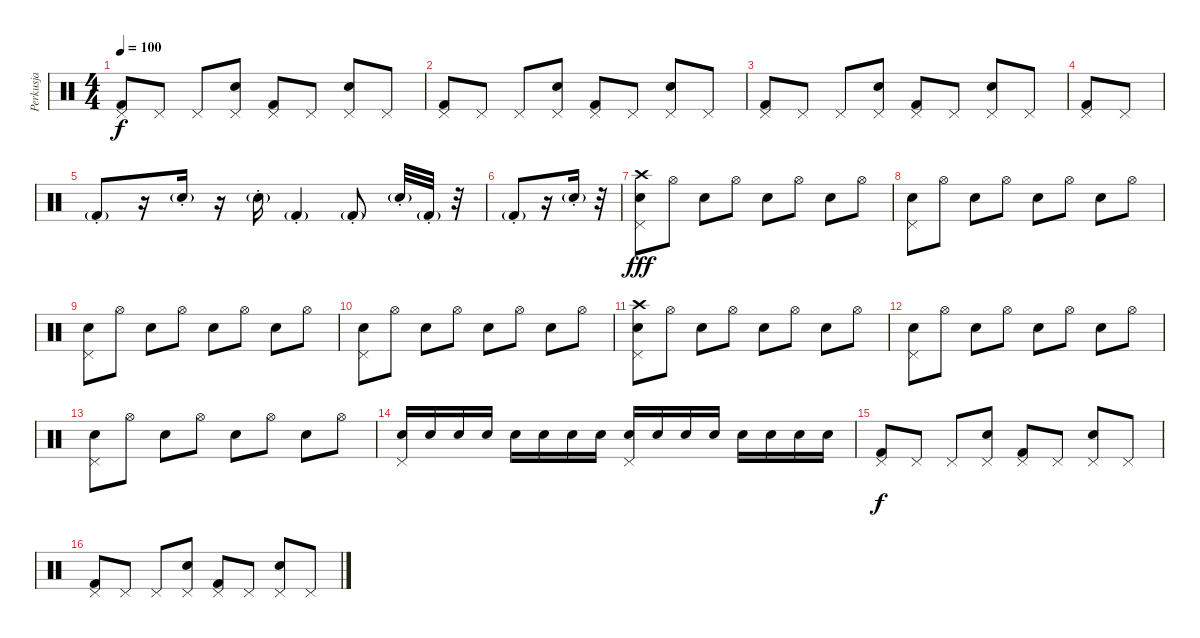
\track ("Perkusja" "Perkusja") {instrument percussion}
\staff {score}
\articulation defaults
\ts (4 4)
\tempo 100
\clef neutral
\ks c
("Pedal Hi-Hat (hit)" "Kick (hit) 2").8{dy f} "Pedal Hi-Hat (hit)".8 "Pedal Hi-Hat (hit)".8 ("Pedal Hi-Hat (hit)" "Snare (hit) 2").8 ("Pedal Hi-Hat (hit)" "Kick (hit) 2").8 "Pedal Hi-Hat (hit)".8 ("Pedal Hi-Hat (hit)" "Snare (hit) 2").8 "Pedal Hi-Hat (hit)".8 |
("Pedal Hi-Hat (hit)" "Kick (hit) 2").8 "Pedal Hi-Hat (hit)".8 "Pedal Hi-Hat (hit)".8 ("Pedal Hi-Hat (hit)" "Snare (hit) 2").8 ("Pedal Hi-Hat (hit)" "Kick (hit) 2").8 "Pedal Hi-Hat (hit)".8 ("Pedal Hi-Hat (hit)" "Snare (hit) 2").8 "Pedal Hi-Hat (hit)".8 |
("Pedal Hi-Hat (hit)" "Kick (hit) 2").8 "Pedal Hi-Hat (hit)".8 "Pedal Hi-Hat (hit)".8 ("Pedal Hi-Hat (hit)" "Snare (hit) 2").8 ("Pedal Hi-Hat (hit)" "Kick (hit) 2").8 "Pedal Hi-Hat (hit)".8 ("Pedal Hi-Hat (hit)" "Snare (hit) 2").8 "Pedal Hi-Hat (hit)".8 |
("Pedal Hi-Hat (hit)" "Kick (hit) 2").8 "Pedal Hi-Hat (hit)".8 |
"Kick (hit) 2"{g st}.8 r.16 "Snare (hit) 2"{g st}.16 r.16 "Snare (hit) 2"{g st}.16 "Kick (hit) 2"{g st}.4 "Kick (hit) 2"{g st}.8 "Snare (hit) 2"{g st}.32 "Kick (hit) 2"{g st}.32 r.32 |
"Kick (hit) 2"{g st}.8 r.16 "Snare (hit) 2"{g st}.16 r.32 |
("Electric Snare (hit)" "Pedal Hi-Hat (hit)" "Crash high (hit)").8{dy fff} "Hi-Hat (open)".8 "Electric Snare (hit)".8 "Hi-Hat (open)".8 "Electric Snare (hit)".8 "Hi-Hat (open)".8 "Electric Snare (hit)".8 "Hi-Hat (open)".8 |
("Electric Snare (hit)" "Pedal Hi-Hat (hit)").8 "Hi-Hat (open)".8 "Electric Snare (hit)".8 "Hi-Hat (open)".8 "Electric Snare (hit)".8 "Hi-Hat (open)".8 "Electric Snare (hit)".8 "Hi-Hat (open)".8 |
("Electric Snare (hit)" "Pedal Hi-Hat (hit)").8 "Hi-Hat (open)".8 "Electric Snare (hit)".8 "Hi-Hat (open)".8 "Electric Snare (hit)".8 "Hi-Hat (open)".8 "Electric Snare (hit)".8 "Hi-Hat (open)".8 |
("Electric Snare (hit)" "Pedal Hi-Hat (hit)").8 "Hi-Hat (open)".8 "Electric Snare (hit)".8 "Hi-Hat (open)".8 "Electric Snare (hit)".8 "Hi-Hat (open)".8 "Electric Snare (hit)".8 "Hi-Hat (open)".8 |
("Electric Snare (hit)" "Pedal Hi-Hat (hit)" "Crash high (hit)").8 "Hi-Hat (open)".8 "Electric Snare (hit)".8 "Hi-Hat (open)".8 "Electric Snare (hit)".8 "Hi-Hat (open)".8 "Electric Snare (hit)".8 "Hi-Hat (open)".8 |
("Electric Snare (hit)" "Pedal Hi-Hat (hit)").8 "Hi-Hat (open)".8 "Electric Snare (hit)".8 "Hi-Hat (open)".8 "Electric Snare (hit)".8 "Hi-Hat (open)".8 "Electric Snare (hit)".8 "Hi-Hat (open)".8 |
("Electric Snare (hit)" "Pedal Hi-Hat (hit)").8 "Hi-Hat (open)".8 "Electric Snare (hit)".8 "Hi-Hat (open)".8 "Electric Snare (hit)".8 "Hi-Hat (open)".8 "Electric Snare (hit)".8 "Hi-Hat (open)".8 |
("Electric Snare (hit)" "Pedal Hi-Hat (hit)").16 "Snare (hit) 2".16 "Snare (hit) 2".16 "Electric Snare (hit)".16 "Electric Snare (hit)".16 "Snare (hit) 2".16 "Snare (hit) 2".16 "Electric Snare (hit)".16 ("Electric Snare (hit)" "Pedal Hi-Hat (hit)").16 "Snare (hit) 2".16 "Snare (hit) 2".16 "Electric Snare (hit)".16 "Electric Snare (hit)".16 "Snare (hit) 2".16 "Snare (hit) 2".16 "Electric Snare (hit)".16 |
("Pedal Hi-Hat (hit)" "Kick (hit) 2").8{dy f} "Pedal Hi-Hat (hit)".8 "Pedal Hi-Hat (hit)".8 ("Pedal Hi-Hat (hit)" "Snare (hit) 2").8 ("Pedal Hi-Hat (hit)" "Kick (hit) 2").8 "Pedal Hi-Hat (hit)".8 ("Pedal Hi-Hat (hit)" "Snare (hit) 2").8 "Pedal Hi-Hat (hit)".8 |
("Pedal Hi-Hat (hit)" "Kick (hit) 2").8 "Pedal Hi-Hat (hit)".8 "Pedal Hi-Hat (hit)".8 ("Pedal Hi-Hat (hit)" "Snare (hit) 2").8 ("Pedal Hi-Hat (hit)" "Kick (hit) 2").8 "Pedal Hi-Hat (hit)".8 ("Pedal Hi-Hat (hit)" "Snare (hit) 2").8 "Pedal Hi-Hat (hit)".8
